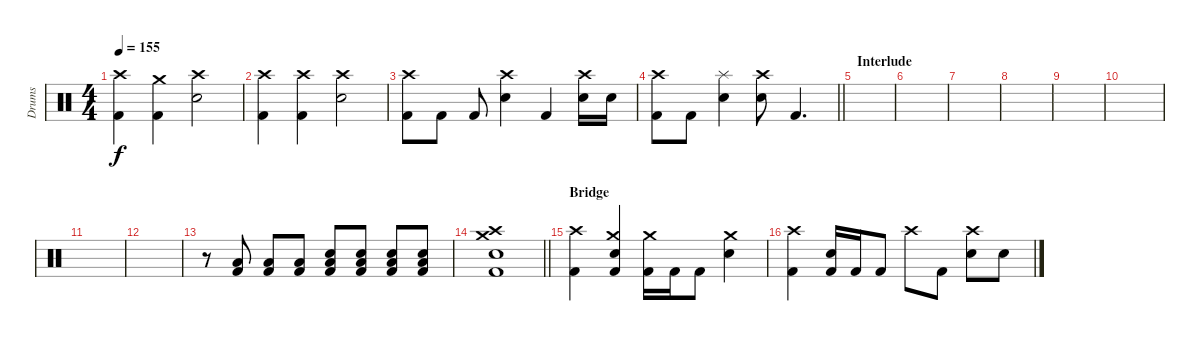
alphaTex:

\track ("Drums" "Drums") {instrument percussion}
\staff {score}
\articulation defaults
\ts (4 4)
\tempo 155
\clef neutral
\ks c
("Crash high (hit)" "Kick (hit) 2").4{dy f} ("Crash medium (hit)" "Kick (hit) 2").4 ("Crash high (hit)" "Snare (hit) 2").2 |
("Crash high (hit)" "Kick (hit) 2").4 ("Crash high (hit)" "Kick (hit) 2").4 ("Crash high (hit)" "Snare (hit) 2").2 |
("Crash high (hit)" "Kick (hit) 2").8 "Kick (hit) 2".8 "Kick (hit) 2".8 ("Crash high (hit)" "Snare (hit) 2").4 "Kick (hit) 2".4 ("Crash high (hit)" "Snare (hit) 2").16 "Snare (hit) 2".16 |
\barLineRight lightlight
("Crash high (hit)" "Kick (hit) 2").8 "Kick (hit) 2".8 ("Splash (hit)" "Snare (hit) 2").4 ("Crash high (hit)" "Snare (hit) 2").8 "Kick (hit) 2".4{d} |
\section ("" "Interlude")
|
|
|
|
|
|
|
|
r.8 ("Low Floor Tom (hit)" "Kick (hit) 2").8 ("Low Floor Tom (hit)" "Kick (hit) 2").8 ("Low Floor Tom (hit)" "Kick (hit) 2").8 ("Snare (hit) 2" "Low Floor Tom (hit)" "Kick (hit) 2").8 ("Snare (hit) 2" "Low Floor Tom (hit)" "Kick (hit) 2").8 ("Snare (hit) 2" "Low Floor Tom (hit)" "Kick (hit) 2").8 ("Snare (hit) 2" "Low Floor Tom (hit)" "Kick (hit) 2").8 |
\barLineRight lightlight
("Snare (hit) 2" "Crash medium (hit)" "Crash high (hit)" "Kick (hit) 2").1 |
\section ("" "Bridge")
("Crash high (hit)" "Kick (hit) 2").4 ("Crash medium (hit)" "Snare (hit) 2" "Kick (hit) 2").4 ("Crash medium (hit)" "Kick (hit) 2").16 "Kick (hit) 2".16 "Kick (hit) 2".8 ("Crash medium (hit)" "Snare (hit) 2").4 |
("Crash high (hit)" "Kick (hit) 2").4 ("Snare (hit) 2" "Kick (hit) 2").16 "Kick (hit) 2".16 "Kick (hit) 2".8 "Crash high (hit)".8 "Kick (hit) 2".8 ("Crash high (hit)" "Snare (hit) 2").8 "Snare (hit) 2".8
